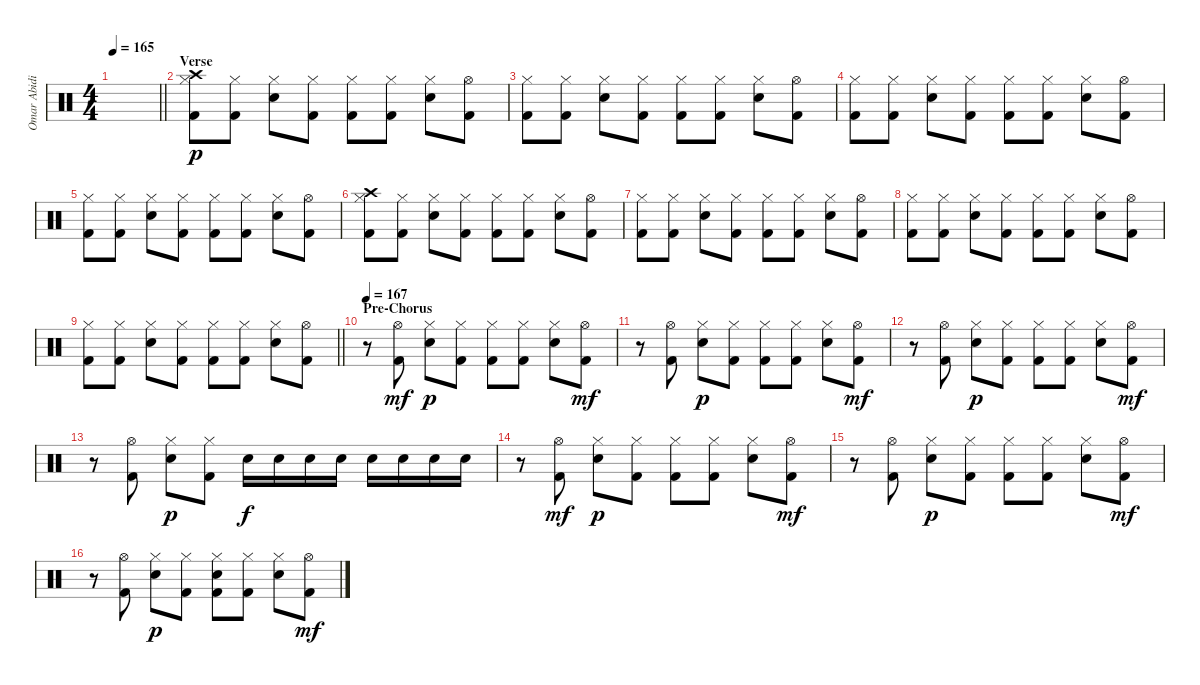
\track ("Omar Abidi" "Omar Abidi") {instrument percussion}
\staff {score}
\articulation defaults
\ts (4 4)
\tempo 165
\clef neutral
\barLineRight lightlight
\ks c
|
\section ("" "Verse")
("Crash high (hit)" "Hi-Hat (closed)" "Kick (hit) 2").8{dy p} ("Hi-Hat (closed)" "Kick (hit) 2").8 ("Hi-Hat (closed)" "Electric Snare (hit)").8 ("Hi-Hat (closed)" "Kick (hit) 2").8 ("Hi-Hat (closed)" "Kick (hit) 2").8 ("Hi-Hat (closed)" "Kick (hit) 2").8 ("Hi-Hat (closed)" "Electric Snare (hit)").8 ("Hi-Hat (open)" "Kick (hit) 2").8 |
("Hi-Hat (closed)" "Kick (hit) 2").8 ("Hi-Hat (closed)" "Kick (hit) 2").8 ("Hi-Hat (closed)" "Electric Snare (hit)").8 ("Hi-Hat (closed)" "Kick (hit) 2").8 ("Hi-Hat (closed)" "Kick (hit) 2").8 ("Hi-Hat (closed)" "Kick (hit) 2").8 ("Hi-Hat (closed)" "Electric Snare (hit)").8 ("Hi-Hat (open)" "Kick (hit) 2").8 |
("Hi-Hat (closed)" "Kick (hit) 2").8 ("Hi-Hat (closed)" "Kick (hit) 2").8 ("Hi-Hat (closed)" "Electric Snare (hit)").8 ("Hi-Hat (closed)" "Kick (hit) 2").8 ("Hi-Hat (closed)" "Kick (hit) 2").8 ("Hi-Hat (closed)" "Kick (hit) 2").8 ("Hi-Hat (closed)" "Electric Snare (hit)").8 ("Hi-Hat (open)" "Kick (hit) 2").8 |
("Hi-Hat (closed)" "Kick (hit) 2").8 ("Hi-Hat (closed)" "Kick (hit) 2").8 ("Hi-Hat (closed)" "Electric Snare (hit)").8 ("Hi-Hat (closed)" "Kick (hit) 2").8 ("Hi-Hat (closed)" "Kick (hit) 2").8 ("Hi-Hat (closed)" "Kick (hit) 2").8 ("Hi-Hat (closed)" "Electric Snare (hit)").8 ("Hi-Hat (open)" "Kick (hit) 2").8 |
("Crash high (hit)" "Hi-Hat (closed)" "Kick (hit) 2").8 ("Hi-Hat (closed)" "Kick (hit) 2").8 ("Hi-Hat (closed)" "Electric Snare (hit)").8 ("Hi-Hat (closed)" "Kick (hit) 2").8 ("Hi-Hat (closed)" "Kick (hit) 2").8 ("Hi-Hat (closed)" "Kick (hit) 2").8 ("Hi-Hat (closed)" "Electric Snare (hit)").8 ("Hi-Hat (open)" "Kick (hit) 2").8 |
("Hi-Hat (closed)" "Kick (hit) 2").8 ("Hi-Hat (closed)" "Kick (hit) 2").8 ("Hi-Hat (closed)" "Electric Snare (hit)").8 ("Hi-Hat (closed)" "Kick (hit) 2").8 ("Hi-Hat (closed)" "Kick (hit) 2").8 ("Hi-Hat (closed)" "Kick (hit) 2").8 ("Hi-Hat (closed)" "Electric Snare (hit)").8 ("Hi-Hat (open)" "Kick (hit) 2").8 |
("Hi-Hat (closed)" "Kick (hit) 2").8 ("Hi-Hat (closed)" "Kick (hit) 2").8 ("Hi-Hat (closed)" "Electric Snare (hit)").8 ("Hi-Hat (closed)" "Kick (hit) 2").8 ("Hi-Hat (closed)" "Kick (hit) 2").8 ("Hi-Hat (closed)" "Kick (hit) 2").8 ("Hi-Hat (closed)" "Electric Snare (hit)").8 ("Hi-Hat (open)" "Kick (hit) 2").8 |
\barLineRight lightlight
("Hi-Hat (closed)" "Kick (hit) 2").8 ("Hi-Hat (closed)" "Kick (hit) 2").8 ("Hi-Hat (closed)" "Electric Snare (hit)").8 ("Hi-Hat (closed)" "Kick (hit) 2").8 ("Hi-Hat (closed)" "Kick (hit) 2").8 ("Hi-Hat (closed)" "Kick (hit) 2").8 ("Hi-Hat (closed)" "Electric Snare (hit)").8 ("Hi-Hat (open)" "Kick (hit) 2").8 |
\section ("" "Pre-Chorus")
\tempo 167
r.8 ("Hi-Hat (open)" "Kick (hit) 2").8{dy mf} ("Hi-Hat (closed)" "Electric Snare (hit)").8{dy p} ("Hi-Hat (closed)" "Kick (hit) 2").8 ("Hi-Hat (closed)" "Kick (hit) 2").8 ("Hi-Hat (closed)" "Kick (hit) 2").8 ("Hi-Hat (closed)" "Electric Snare (hit)").8 ("Hi-Hat (open)" "Kick (hit) 2").8{dy mf} |
r.8 ("Hi-Hat (open)" "Kick (hit) 2").8 ("Hi-Hat (closed)" "Electric Snare (hit)").8{dy p} ("Hi-Hat (closed)" "Kick (hit) 2").8 ("Hi-Hat (closed)" "Kick (hit) 2").8 ("Hi-Hat (closed)" "Kick (hit) 2").8 ("Hi-Hat (closed)" "Electric Snare (hit)").8 ("Hi-Hat (open)" "Kick (hit) 2").8{dy mf} |
r.8 ("Hi-Hat (open)" "Kick (hit) 2").8 ("Hi-Hat (closed)" "Electric Snare (hit)").8{dy p} ("Hi-Hat (closed)" "Kick (hit) 2").8 ("Hi-Hat (closed)" "Kick (hit) 2").8 ("Hi-Hat (closed)" "Kick (hit) 2").8 ("Hi-Hat (closed)" "Electric Snare (hit)").8 ("Hi-Hat (open)" "Kick (hit) 2").8{dy mf} |
r.8 ("Hi-Hat (open)" "Kick (hit) 2").8 ("Hi-Hat (closed)" "Electric Snare (hit)").8{dy p} ("Hi-Hat (closed)" "Kick (hit) 2").8 "Electric Snare (hit)".16{dy f} "Electric Snare (hit)".16 "Electric Snare (hit)".16 "Electric Snare (hit)".16 "Electric Snare (hit)".16 "Electric Snare (hit)".16 "Electric Snare (hit)".16 "Electric Snare (hit)".16 |
r.8 ("Hi-Hat (open)" "Kick (hit) 2").8{dy mf} ("Hi-Hat (closed)" "Electric Snare (hit)").8{dy p} ("Hi-Hat (closed)" "Kick (hit) 2").8 ("Hi-Hat (closed)" "Kick (hit) 2").8 ("Hi-Hat (closed)" "Kick (hit) 2").8 ("Hi-Hat (closed)" "Electric Snare (hit)").8 ("Hi-Hat (open)" "Kick (hit) 2").8{dy mf} |
r.8 ("Hi-Hat (open)" "Kick (hit) 2").8 ("Hi-Hat (closed)" "Electric Snare (hit)").8{dy p} ("Hi-Hat (closed)" "Kick (hit) 2").8 ("Hi-Hat (closed)" "Kick (hit) 2").8 ("Hi-Hat (closed)" "Kick (hit) 2").8 ("Hi-Hat (closed)" "Electric Snare (hit)").8 ("Hi-Hat (open)" "Kick (hit) 2").8{dy mf} |
r.8 ("Hi-Hat (open)" "Kick (hit) 2").8 ("Hi-Hat (closed)" "Electric Snare (hit)").8{dy p} ("Hi-Hat (closed)" "Kick (hit) 2").8 ("Hi-Hat (closed)" "Electric Snare (hit)" "Kick (hit) 2").8 ("Hi-Hat (closed)" "Kick (hit) 2").8 ("Hi-Hat (closed)" "Electric Snare (hit)").8 ("Hi-Hat (open)" "Kick (hit) 2").8{dy mf}
